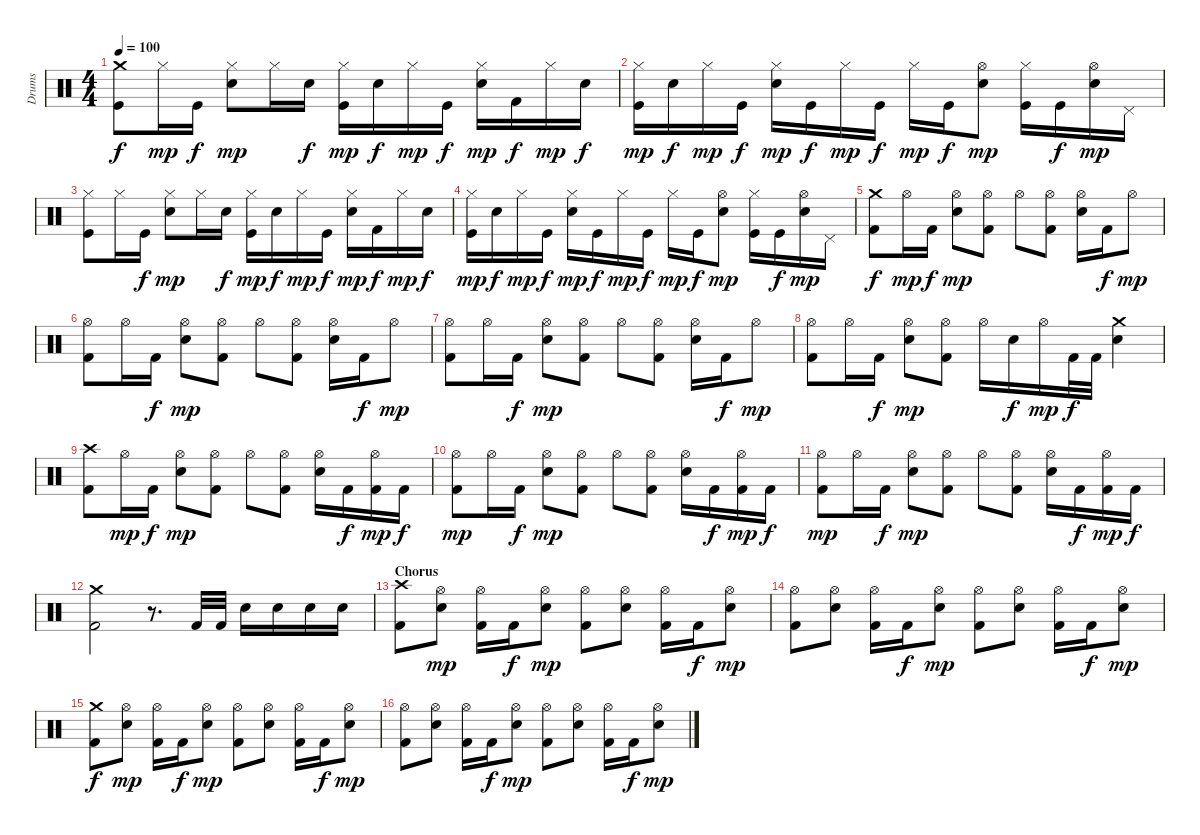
\track ("Drums" "Drums") {instrument percussion}
\staff {score}
\articulation defaults
\ts (4 4)
\tempo 100
\clef neutral
\ks c
("Crash medium (hit)" "Kick (hit)").8{dy f} "Hi-Hat (closed)".16{dy mp} "Kick (hit)".16{dy f} ("Hi-Hat (closed)" "Snare (hit) 2").8{dy mp} "Hi-Hat (closed)".16 "Snare (hit) 2".16{dy f} ("Hi-Hat (closed)" "Kick (hit)").16{dy mp} "Snare (hit) 2".16{dy f} "Hi-Hat (closed)".16{dy mp} "Kick (hit)".16{dy f} ("Hi-Hat (closed)" "Snare (hit) 2").16{dy mp} "Kick (hit) 2".16{dy f} "Hi-Hat (closed)".16{dy mp} "Snare (hit) 2".16{dy f} |
("Hi-Hat (closed)" "Kick (hit)").16{dy mp} "Snare (hit) 2".16{dy f} "Hi-Hat (closed)".16{dy mp} "Kick (hit)".16{dy f} ("Hi-Hat (closed)" "Snare (hit) 2").16{dy mp} "Kick (hit)".16{dy f} "Hi-Hat (closed)".16{dy mp} "Kick (hit)".16{dy f} "Hi-Hat (closed)".16{dy mp} "Kick (hit)".16{dy f} ("Hi-Hat (open)" "Snare (hit) 2").8{dy mp} ("Hi-Hat (closed)" "Kick (hit)").16 "Kick (hit)".16{dy f} ("Hi-Hat (open)" "Snare (hit) 2").16{dy mp} "Pedal Hi-Hat (hit)".16 |
("Hi-Hat (closed)" "Kick (hit)").8 "Hi-Hat (closed)".16 "Kick (hit)".16{dy f} ("Hi-Hat (closed)" "Snare (hit) 2").8{dy mp} "Hi-Hat (closed)".16 "Snare (hit) 2".16{dy f} ("Hi-Hat (closed)" "Kick (hit)").16{dy mp} "Snare (hit) 2".16{dy f} "Hi-Hat (closed)".16{dy mp} "Kick (hit)".16{dy f} ("Hi-Hat (closed)" "Snare (hit) 2").16{dy mp} "Kick (hit) 2".16{dy f} "Hi-Hat (closed)".16{dy mp} "Snare (hit) 2".16{dy f} |
("Hi-Hat (closed)" "Kick (hit)").16{dy mp} "Snare (hit) 2".16{dy f} "Hi-Hat (closed)".16{dy mp} "Kick (hit)".16{dy f} ("Hi-Hat (closed)" "Snare (hit) 2").16{dy mp} "Kick (hit)".16{dy f} "Hi-Hat (closed)".16{dy mp} "Kick (hit)".16{dy f} "Hi-Hat (closed)".16{dy mp} "Kick (hit)".16{dy f} ("Hi-Hat (open)" "Snare (hit) 2").8{dy mp} ("Hi-Hat (closed)" "Kick (hit)").16 "Kick (hit)".16{dy f} ("Hi-Hat (open)" "Snare (hit) 2").16{dy mp} "Pedal Hi-Hat (hit)".16 |
("Crash medium (hit)" "Kick (hit) 2").8{dy f} "Hi-Hat (open)".16{dy mp} "Kick (hit) 2".16{dy f} ("Hi-Hat (open)" "Snare (hit) 2").8{dy mp} ("Hi-Hat (open)" "Kick (hit) 2").8 "Hi-Hat (open)".8 ("Hi-Hat (open)" "Kick (hit) 2").8 ("Hi-Hat (open)" "Snare (hit) 2").16 "Kick (hit) 2".16{dy f} "Hi-Hat (open)".8{dy mp} |
("Hi-Hat (open)" "Kick (hit) 2").8 "Hi-Hat (open)".16 "Kick (hit) 2".16{dy f} ("Hi-Hat (open)" "Snare (hit) 2").8{dy mp} ("Hi-Hat (open)" "Kick (hit) 2").8 "Hi-Hat (open)".8 ("Hi-Hat (open)" "Kick (hit) 2").8 ("Hi-Hat (open)" "Snare (hit) 2").16 "Kick (hit) 2".16{dy f} "Hi-Hat (open)".8{dy mp} |
("Hi-Hat (open)" "Kick (hit) 2").8 "Hi-Hat (open)".16 "Kick (hit) 2".16{dy f} ("Hi-Hat (open)" "Snare (hit) 2").8{dy mp} ("Hi-Hat (open)" "Kick (hit) 2").8 "Hi-Hat (open)".8 ("Hi-Hat (open)" "Kick (hit) 2").8 ("Hi-Hat (open)" "Snare (hit) 2").16 "Kick (hit) 2".16{dy f} "Hi-Hat (open)".8{dy mp} |
("Hi-Hat (open)" "Kick (hit) 2").8 "Hi-Hat (open)".16 "Kick (hit) 2".16{dy f} ("Hi-Hat (open)" "Snare (hit) 2").8{dy mp} ("Hi-Hat (open)" "Kick (hit) 2").8 "Hi-Hat (open)".16 "Snare (hit) 2".16{dy f} "Hi-Hat (open)".16{dy mp} "Kick (hit) 2".32{dy f} "Kick (hit) 2".32 ("Crash medium (hit)" "Snare (hit) 2").4 |
("Crash high (hit)" "Kick (hit) 2").8 "Hi-Hat (open)".16{dy mp} "Kick (hit) 2".16{dy f} ("Hi-Hat (open)" "Snare (hit) 2").8{dy mp} ("Hi-Hat (open)" "Kick (hit) 2").8 "Hi-Hat (open)".8 ("Hi-Hat (open)" "Kick (hit) 2").8 ("Hi-Hat (open)" "Snare (hit) 2").16 "Kick (hit) 2".16{dy f} ("Hi-Hat (open)" "Kick (hit) 2").16{dy mp} "Kick (hit) 2".16{dy f} |
("Hi-Hat (open)" "Kick (hit) 2").8{dy mp} "Hi-Hat (open)".16 "Kick (hit) 2".16{dy f} ("Hi-Hat (open)" "Snare (hit) 2").8{dy mp} ("Hi-Hat (open)" "Kick (hit) 2").8 "Hi-Hat (open)".8 ("Hi-Hat (open)" "Kick (hit) 2").8 ("Hi-Hat (open)" "Snare (hit) 2").16 "Kick (hit) 2".16{dy f} ("Hi-Hat (open)" "Kick (hit) 2").16{dy mp} "Kick (hit) 2".16{dy f} |
("Hi-Hat (open)" "Kick (hit) 2").8{dy mp} "Hi-Hat (open)".16 "Kick (hit) 2".16{dy f} ("Hi-Hat (open)" "Snare (hit) 2").8{dy mp} ("Hi-Hat (open)" "Kick (hit) 2").8 "Hi-Hat (open)".8 ("Hi-Hat (open)" "Kick (hit) 2").8 ("Hi-Hat (open)" "Snare (hit) 2").16 "Kick (hit) 2".16{dy f} ("Hi-Hat (open)" "Kick (hit) 2").16{dy mp} "Kick (hit) 2".16{dy f} |
("Crash medium (hit)" "Kick (hit) 2").2 r.8{d} "Kick (hit) 2".32 "Kick (hit) 2".32 "Snare (hit) 2".16 "Snare (hit) 2".16 "Snare (hit) 2".16 "Snare (hit) 2".16 |
\section ("" "Chorus")
("Crash high (hit)" "Kick (hit) 2").8 ("Hi-Hat (open)" "Snare (hit) 2").8{dy mp} ("Hi-Hat (open)" "Kick (hit) 2").16 "Kick (hit) 2".16{dy f} ("Hi-Hat (open)" "Snare (hit) 2").8{dy mp} ("Hi-Hat (open)" "Kick (hit) 2").8 ("Hi-Hat (open)" "Snare (hit) 2").8 ("Hi-Hat (open)" "Kick (hit) 2").16 "Kick (hit) 2".16{dy f} ("Hi-Hat (open)" "Snare (hit) 2").8{dy mp} |
("Hi-Hat (open)" "Kick (hit) 2").8 ("Hi-Hat (open)" "Snare (hit) 2").8 ("Hi-Hat (open)" "Kick (hit) 2").16 "Kick (hit) 2".16{dy f} ("Hi-Hat (open)" "Snare (hit) 2").8{dy mp} ("Hi-Hat (open)" "Kick (hit) 2").8 ("Hi-Hat (open)" "Snare (hit) 2").8 ("Hi-Hat (open)" "Kick (hit) 2").16 "Kick (hit) 2".16{dy f} ("Hi-Hat (open)" "Snare (hit) 2").8{dy mp} |
("Crash medium (hit)" "Kick (hit) 2").8{dy f} ("Hi-Hat (open)" "Snare (hit) 2").8{dy mp} ("Hi-Hat (open)" "Kick (hit) 2").16 "Kick (hit) 2".16{dy f} ("Hi-Hat (open)" "Snare (hit) 2").8{dy mp} ("Hi-Hat (open)" "Kick (hit) 2").8 ("Hi-Hat (open)" "Snare (hit) 2").8 ("Hi-Hat (open)" "Kick (hit) 2").16 "Kick (hit) 2".16{dy f} ("Hi-Hat (open)" "Snare (hit) 2").8{dy mp} |
("Hi-Hat (open)" "Kick (hit) 2").8 ("Hi-Hat (open)" "Snare (hit) 2").8 ("Hi-Hat (open)" "Kick (hit) 2").16 "Kick (hit) 2".16{dy f} ("Hi-Hat (open)" "Snare (hit) 2").8{dy mp} ("Hi-Hat (open)" "Kick (hit) 2").8 ("Hi-Hat (open)" "Snare (hit) 2").8 ("Hi-Hat (open)" "Kick (hit) 2").16 "Kick (hit) 2".16{dy f} ("Hi-Hat (open)" "Snare (hit) 2").8{dy mp}
